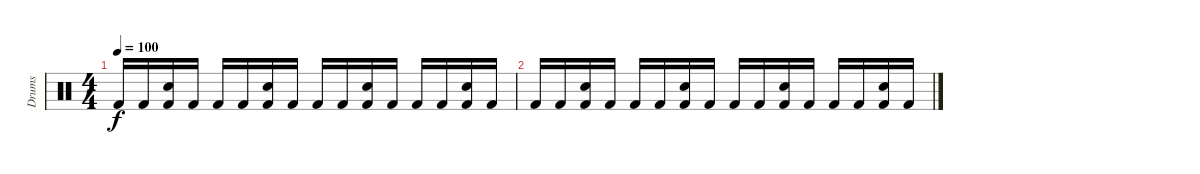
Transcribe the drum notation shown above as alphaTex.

\track ("Drums" "Drums") {instrument percussion}
\staff {score}
\articulation defaults
\ts (4 4)
\tempo 100
\clef neutral
\ks c "Kick (hit) 2".16{dy f} "Kick (hit) 2".16
("Snare (hit) 2" "Kick (hit) 2").16 "Kick (hit) 2".16 "Kick (hit) 2".16 "Kick (hit) 2".16 ("Snare (hit) 2" "Kick (hit) 2").16 "Kick (hit) 2".16 "Kick (hit) 2".16 "Kick (hit) 2".16 ("Snare (hit) 2" "Kick (hit) 2").16 "Kick (hit) 2".16 "Kick (hit) 2".16 "Kick (hit) 2".16 ("Snare (hit) 2" "Kick (hit) 2").16 "Kick (hit) 2".16 |
"Kick (hit) 2".16 "Kick (hit) 2".16 ("Snare (hit) 2" "Kick (hit) 2").16 "Kick (hit) 2".16 "Kick (hit) 2".16 "Kick (hit) 2".16 ("Snare (hit) 2" "Kick (hit) 2").16 "Kick (hit) 2".16 "Kick (hit) 2".16 "Kick (hit) 2".16 ("Snare (hit) 2" "Kick (hit) 2").16 "Kick (hit) 2".16 "Kick (hit) 2".16 "Kick (hit) 2".16 ("Snare (hit) 2" "Kick (hit) 2").16 "Kick (hit) 2".16
